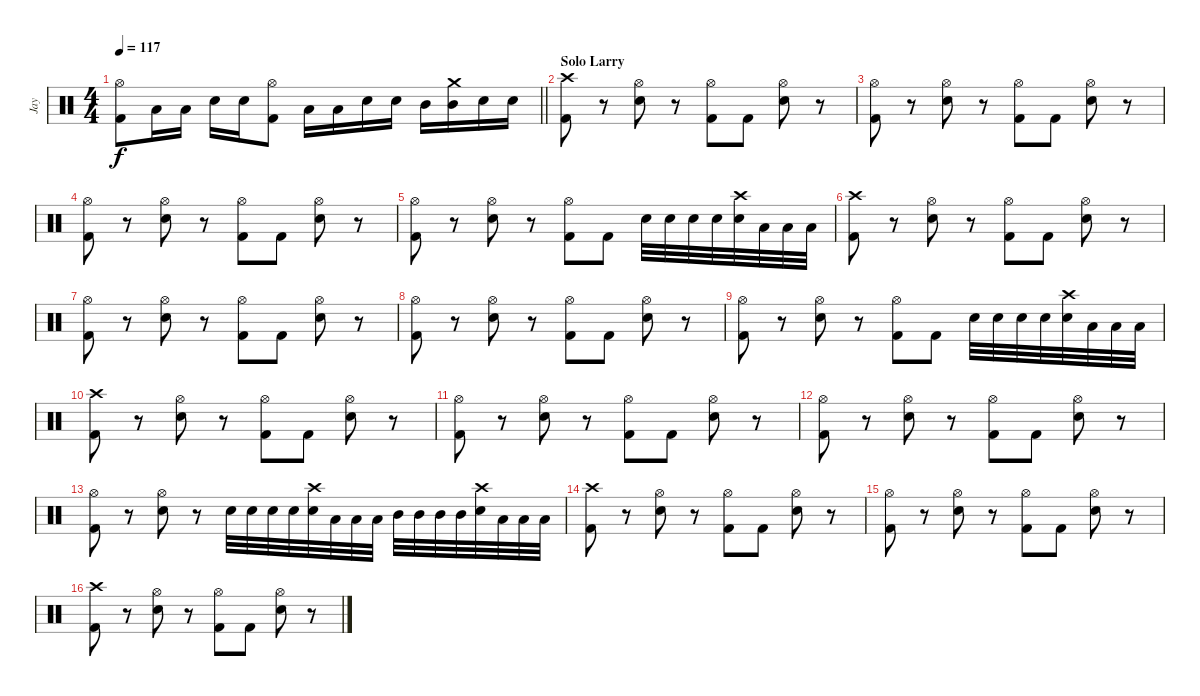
\track ("Jay" "Jay") {instrument percussion}
\staff {score}
\articulation defaults
\ts (4 4)
\tempo 117
\clef neutral
\barLineRight lightlight
\ks c
("Hi-Hat (open)" "Kick (hit) 2").8{dy f} "Low Tom (hit)".16 "Low Tom (hit)".16 "Electric Snare (hit)".16 "Electric Snare (hit)".16 ("Hi-Hat (open)" "Kick (hit) 2").8 "Low Tom (hit)".16 "Low Tom (hit)".16 "Electric Snare (hit)".16 "Electric Snare (hit)".16 "Mid Tom (hit)".16 ("Mid Tom (hit)" "Crash medium (hit)").16 "Electric Snare (hit)".16 "Electric Snare (hit)".16 |
\section ("" "Solo Larry")
("Crash high (hit)" "Kick (hit) 2").8 r.8 ("Hi-Hat (open)" "Snare (hit) 2").8 r.8 ("Hi-Hat (open)" "Kick (hit) 2").8 "Kick (hit) 2".8 ("Hi-Hat (open)" "Snare (hit) 2").8 r.8 |
("Hi-Hat (open)" "Kick (hit) 2").8 r.8 ("Hi-Hat (open)" "Snare (hit) 2").8 r.8 ("Hi-Hat (open)" "Kick (hit) 2").8 "Kick (hit) 2".8 ("Hi-Hat (open)" "Snare (hit) 2").8 r.8 |
("Hi-Hat (open)" "Kick (hit) 2").8 r.8 ("Hi-Hat (open)" "Snare (hit) 2").8 r.8 ("Hi-Hat (open)" "Kick (hit) 2").8 "Kick (hit) 2".8 ("Hi-Hat (open)" "Snare (hit) 2").8 r.8 |
("Hi-Hat (open)" "Kick (hit) 2").8 r.8 ("Hi-Hat (open)" "Snare (hit) 2").8 r.8 ("Hi-Hat (open)" "Kick (hit) 2").8 "Kick (hit) 2".8 "Snare (hit) 2".32 "Snare (hit) 2".32 "Snare (hit) 2".32 "Snare (hit) 2".32 ("Crash high (hit)" "Snare (hit) 2").32 "Low Tom (hit)".32 "Low Tom (hit)".32 "Low Tom (hit)".32 |
("Crash high (hit)" "Kick (hit) 2").8 r.8 ("Hi-Hat (open)" "Snare (hit) 2").8 r.8 ("Hi-Hat (open)" "Kick (hit) 2").8 "Kick (hit) 2".8 ("Hi-Hat (open)" "Snare (hit) 2").8 r.8 |
("Hi-Hat (open)" "Kick (hit) 2").8 r.8 ("Hi-Hat (open)" "Snare (hit) 2").8 r.8 ("Hi-Hat (open)" "Kick (hit) 2").8 "Kick (hit) 2".8 ("Hi-Hat (open)" "Snare (hit) 2").8 r.8 |
("Hi-Hat (open)" "Kick (hit) 2").8 r.8 ("Hi-Hat (open)" "Snare (hit) 2").8 r.8 ("Hi-Hat (open)" "Kick (hit) 2").8 "Kick (hit) 2".8 ("Hi-Hat (open)" "Snare (hit) 2").8 r.8 |
("Hi-Hat (open)" "Kick (hit) 2").8 r.8 ("Hi-Hat (open)" "Snare (hit) 2").8 r.8 ("Hi-Hat (open)" "Kick (hit) 2").8 "Kick (hit) 2".8 "Snare (hit) 2".32 "Snare (hit) 2".32 "Snare (hit) 2".32 "Snare (hit) 2".32 ("Crash high (hit)" "Snare (hit) 2").32 "Low Tom (hit)".32 "Low Tom (hit)".32 "Low Tom (hit)".32 |
("Crash high (hit)" "Kick (hit) 2").8 r.8 ("Hi-Hat (open)" "Snare (hit) 2").8 r.8 ("Hi-Hat (open)" "Kick (hit) 2").8 "Kick (hit) 2".8 ("Hi-Hat (open)" "Snare (hit) 2").8 r.8 |
("Hi-Hat (open)" "Kick (hit) 2").8 r.8 ("Hi-Hat (open)" "Snare (hit) 2").8 r.8 ("Hi-Hat (open)" "Kick (hit) 2").8 "Kick (hit) 2".8 ("Hi-Hat (open)" "Snare (hit) 2").8 r.8 |
("Hi-Hat (open)" "Kick (hit) 2").8 r.8 ("Hi-Hat (open)" "Snare (hit) 2").8 r.8 ("Hi-Hat (open)" "Kick (hit) 2").8 "Kick (hit) 2".8 ("Hi-Hat (open)" "Snare (hit) 2").8 r.8 |
("Hi-Hat (open)" "Kick (hit) 2").8 r.8 ("Hi-Hat (open)" "Snare (hit) 2").8 r.8 "Snare (hit) 2".32 "Snare (hit) 2".32 "Snare (hit) 2".32 "Snare (hit) 2".32 ("Crash high (hit)" "Snare (hit) 2").32 "Low Tom (hit)".32 "Low Tom (hit)".32 "Low Tom (hit)".32 "Mid Tom (hit)".32 "Mid Tom (hit)".32 "Mid Tom (hit)".32 "Mid Tom (hit)".32 ("Crash high (hit)" "Snare (hit) 2").32 "Low Tom (hit)".32 "Low Tom (hit)".32 "Low Tom (hit)".32 |
("Crash high (hit)" "Kick (hit) 2").8 r.8 ("Hi-Hat (open)" "Snare (hit) 2").8 r.8 ("Hi-Hat (open)" "Kick (hit) 2").8 "Kick (hit) 2".8 ("Hi-Hat (open)" "Snare (hit) 2").8 r.8 |
("Hi-Hat (open)" "Kick (hit) 2").8 r.8 ("Hi-Hat (open)" "Snare (hit) 2").8 r.8 ("Hi-Hat (open)" "Kick (hit) 2").8 "Kick (hit) 2".8 ("Hi-Hat (open)" "Snare (hit) 2").8 r.8 |
("Crash high (hit)" "Kick (hit) 2").8 r.8 ("Hi-Hat (open)" "Snare (hit) 2").8 r.8 ("Hi-Hat (open)" "Kick (hit) 2").8 "Kick (hit) 2".8 ("Hi-Hat (open)" "Snare (hit) 2").8 r.8
